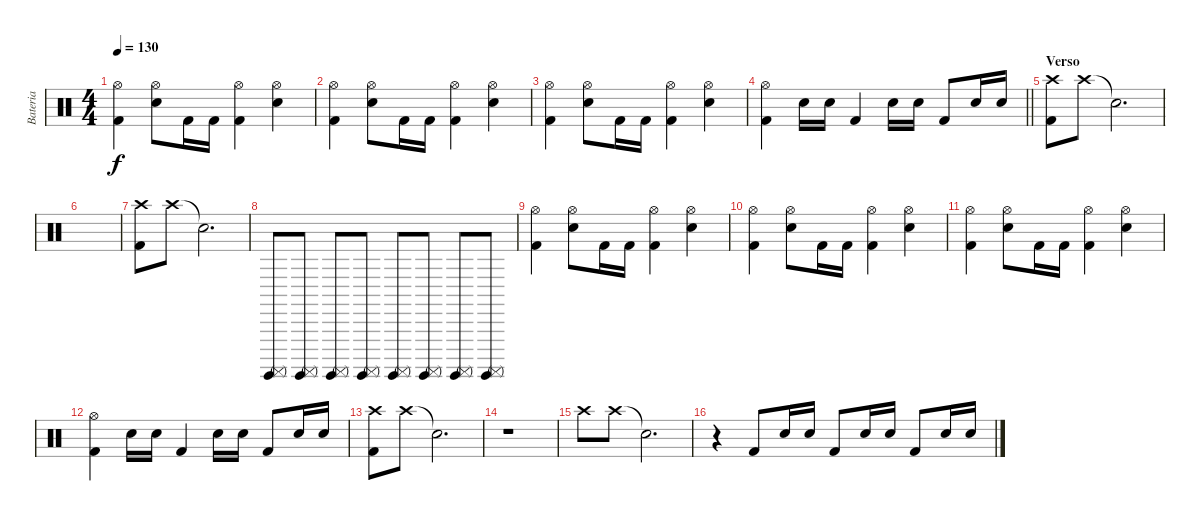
\track ("Bateria" "Bateria") {instrument percussion}
\staff {score}
\articulation defaults
\ts (4 4)
\tempo 130
\clef neutral
\ks c
("Hi-Hat (open)" "Kick (hit) 2").4{dy f} ("Hi-Hat (open)" "Electric Snare (hit)").8 "Kick (hit) 2".16 "Kick (hit) 2".16 ("Hi-Hat (open)" "Kick (hit) 2").4 ("Hi-Hat (open)" "Electric Snare (hit)").4 |
("Hi-Hat (open)" "Kick (hit) 2").4 ("Hi-Hat (open)" "Electric Snare (hit)").8 "Kick (hit) 2".16 "Kick (hit) 2".16 ("Hi-Hat (open)" "Kick (hit) 2").4 ("Hi-Hat (open)" "Electric Snare (hit)").4 |
("Hi-Hat (open)" "Kick (hit) 2").4 ("Hi-Hat (open)" "Electric Snare (hit)").8 "Kick (hit) 2".16 "Kick (hit) 2".16 ("Hi-Hat (open)" "Kick (hit) 2").4 ("Hi-Hat (open)" "Electric Snare (hit)").4 |
\barLineRight lightlight
("Hi-Hat (open)" "Kick (hit) 2").4 "Electric Snare (hit)".16 "Electric Snare (hit)".16 "Kick (hit) 2".4 "Electric Snare (hit)".16 "Electric Snare (hit)".16 "Kick (hit) 2".8 "Electric Snare (hit)".16 "Electric Snare (hit)".16 |
\section ("" "Verso")
("Crash high (hit)" "Kick (hit) 2").8 "Crash high (hit)".8 "Snare (hit)"{t}.2{d} |
|
("Crash high (hit)" "Kick (hit) 2").8 "Crash high (hit)".8 "Snare (hit)"{t}.2{d volume 0} |
("Surdo (hit)" "Surdo (mute)").8{volume 15} ("Surdo (hit)" "Surdo (mute)").8 ("Surdo (hit)" "Surdo (mute)").8 ("Surdo (hit)" "Surdo (mute)").8 ("Surdo (hit)" "Surdo (mute)").8 ("Surdo (hit)" "Surdo (mute)").8 ("Surdo (hit)" "Surdo (mute)").8 ("Surdo (hit)" "Surdo (mute)").8 |
("Hi-Hat (open)" "Kick (hit) 2").4 ("Hi-Hat (open)" "Electric Snare (hit)").8 "Kick (hit) 2".16 "Kick (hit) 2".16 ("Hi-Hat (open)" "Kick (hit) 2").4 ("Hi-Hat (open)" "Electric Snare (hit)").4 |
("Hi-Hat (open)" "Kick (hit) 2").4 ("Hi-Hat (open)" "Electric Snare (hit)").8 "Kick (hit) 2".16 "Kick (hit) 2".16 ("Hi-Hat (open)" "Kick (hit) 2").4 ("Hi-Hat (open)" "Electric Snare (hit)").4 |
("Hi-Hat (open)" "Kick (hit) 2").4 ("Hi-Hat (open)" "Electric Snare (hit)").8 "Kick (hit) 2".16 "Kick (hit) 2".16 ("Hi-Hat (open)" "Kick (hit) 2").4 ("Hi-Hat (open)" "Electric Snare (hit)").4 |
("Hi-Hat (open)" "Kick (hit) 2").4 "Electric Snare (hit)".16 "Electric Snare (hit)".16 "Kick (hit) 2".4 "Electric Snare (hit)".16 "Electric Snare (hit)".16 "Kick (hit) 2".8 "Electric Snare (hit)".16 "Electric Snare (hit)".16 |
("Crash high (hit)" "Kick (hit) 2").8 "Crash high (hit)".8 "Snare (hit)"{t}.2{d} |
r.1 |
"Crash high (hit)".8 "Crash high (hit)".8 "Snare (hit)"{t}.2{d} |
r.4 "Kick (hit) 2".8 "Electric Snare (hit)".16 "Electric Snare (hit)".16 "Kick (hit) 2".8 "Electric Snare (hit)".16 "Electric Snare (hit)".16 "Kick (hit) 2".8 "Electric Snare (hit)".16 "Electric Snare (hit)".16
